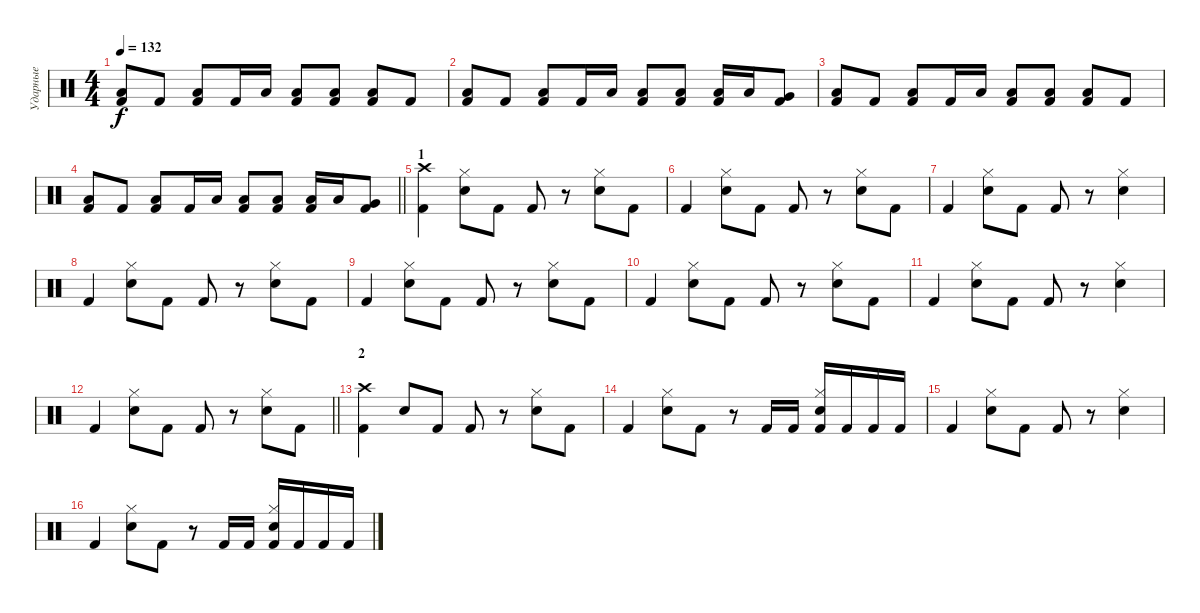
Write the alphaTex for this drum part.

\track ("Ударные" "Ударные") {instrument percussion}
\staff {score}
\articulation defaults
\ts (4 4)
\tempo 132
\clef neutral
\ks c
("Low Tom (hit)" "Kick (hit) 2").8{dy f} "Kick (hit) 2".8 ("Low Tom (hit)" "Kick (hit) 2").8 "Kick (hit) 2".16 "Low Floor Tom (hit)".16 ("Low Tom (hit)" "Kick (hit) 2").8 ("Low Tom (hit)" "Kick (hit) 2").8 ("Low Tom (hit)" "Kick (hit) 2").8 "Kick (hit) 2".8 |
("Low Tom (hit)" "Kick (hit) 2").8 "Kick (hit) 2".8 ("Low Tom (hit)" "Kick (hit) 2").8 "Kick (hit) 2".16 "Low Floor Tom (hit)".16 ("Low Tom (hit)" "Kick (hit) 2").8 ("Low Tom (hit)" "Kick (hit) 2").8 ("Low Tom (hit)" "Kick (hit) 2").16 "Low Tom (hit)".16 ("Very Low Tom (hit)" "Kick (hit) 2").8 |
("Low Tom (hit)" "Kick (hit) 2").8 "Kick (hit) 2".8 ("Low Tom (hit)" "Kick (hit) 2").8 "Kick (hit) 2".16 "Low Floor Tom (hit)".16 ("Low Tom (hit)" "Kick (hit) 2").8 ("Low Tom (hit)" "Kick (hit) 2").8 ("Low Tom (hit)" "Kick (hit) 2").8 "Kick (hit) 2".8 |
\barLineRight lightlight
("Low Tom (hit)" "Kick (hit) 2").8 "Kick (hit) 2".8 ("Low Tom (hit)" "Kick (hit) 2").8 "Kick (hit) 2".16 "Low Floor Tom (hit)".16 ("Low Tom (hit)" "Kick (hit) 2").8 ("Low Tom (hit)" "Kick (hit) 2").8 ("Low Tom (hit)" "Kick (hit) 2").16 "Low Tom (hit)".16 ("Very Low Tom (hit)" "Kick (hit) 2").8 |
\section ("" "1")
("Crash high (hit)" "Kick (hit) 2").4 ("Hi-Hat (closed)" "Snare (hit) 2").8 "Kick (hit) 2".8 "Kick (hit) 2".8 r.8 ("Hi-Hat (closed)" "Snare (hit) 2").8 "Kick (hit) 2".8 |
"Kick (hit) 2".4 ("Hi-Hat (closed)" "Snare (hit) 2").8 "Kick (hit) 2".8 "Kick (hit) 2".8 r.8 ("Hi-Hat (closed)" "Snare (hit) 2").8 "Kick (hit) 2".8 |
"Kick (hit) 2".4 ("Hi-Hat (closed)" "Snare (hit) 2").8 "Kick (hit) 2".8 "Kick (hit) 2".8 r.8 ("Hi-Hat (closed)" "Snare (hit) 2").4 |
"Kick (hit) 2".4 ("Hi-Hat (closed)" "Snare (hit) 2").8 "Kick (hit) 2".8 "Kick (hit) 2".8 r.8 ("Hi-Hat (closed)" "Snare (hit) 2").8 "Kick (hit) 2".8 |
"Kick (hit) 2".4 ("Hi-Hat (closed)" "Snare (hit) 2").8 "Kick (hit) 2".8 "Kick (hit) 2".8 r.8 ("Hi-Hat (closed)" "Snare (hit) 2").8 "Kick (hit) 2".8 |
"Kick (hit) 2".4 ("Hi-Hat (closed)" "Snare (hit) 2").8 "Kick (hit) 2".8 "Kick (hit) 2".8 r.8 ("Hi-Hat (closed)" "Snare (hit) 2").8 "Kick (hit) 2".8 |
"Kick (hit) 2".4 ("Hi-Hat (closed)" "Snare (hit) 2").8 "Kick (hit) 2".8 "Kick (hit) 2".8 r.8 ("Hi-Hat (closed)" "Snare (hit) 2").4 |
\barLineRight lightlight "Kick (hit) 2".4
("Hi-Hat (closed)" "Snare (hit) 2").8 "Kick (hit) 2".8 "Kick (hit) 2".8 r.8 ("Hi-Hat (closed)" "Snare (hit) 2").8 "Kick (hit) 2".8 |
\section ("" "2")
("Crash high (hit)" "Kick (hit) 2").4 "Snare (hit) 2".8 "Kick (hit) 2".8 "Kick (hit) 2".8 r.8 ("Hi-Hat (closed)" "Snare (hit) 2").8 "Kick (hit) 2".8 |
"Kick (hit) 2".4 ("Hi-Hat (closed)" "Snare (hit) 2").8 "Kick (hit) 2".8 r.8 "Kick (hit) 2".16 "Kick (hit) 2".16 ("Hi-Hat (closed)" "Snare (hit) 2" "Kick (hit) 2").16 "Kick (hit) 2".16 "Kick (hit) 2".16 "Kick (hit) 2".16 |
"Kick (hit) 2".4 ("Hi-Hat (closed)" "Snare (hit) 2").8 "Kick (hit) 2".8 "Kick (hit) 2".8 r.8 ("Hi-Hat (closed)" "Snare (hit) 2").4 |
"Kick (hit) 2".4 ("Hi-Hat (closed)" "Snare (hit) 2").8 "Kick (hit) 2".8 r.8 "Kick (hit) 2".16 "Kick (hit) 2".16 ("Hi-Hat (closed)" "Snare (hit) 2" "Kick (hit) 2").16 "Kick (hit) 2".16 "Kick (hit) 2".16 "Kick (hit) 2".16
